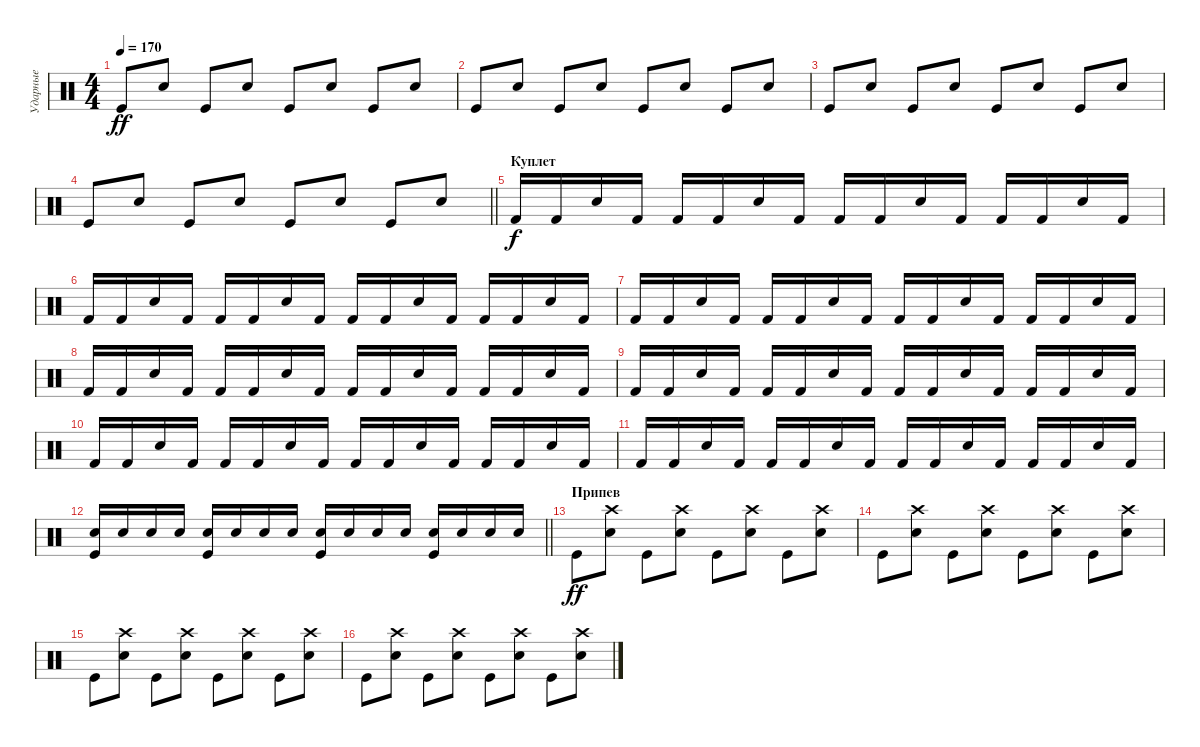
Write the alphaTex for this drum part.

\track ("Ударные" "Ударные") {instrument percussion}
\staff {score}
\articulation defaults
\ts (4 4)
\tempo 170
\clef neutral
\ks c "Kick (hit)".8{dy ff} "Electric Snare (hit)".8 "Kick (hit)".8 "Electric Snare (hit)".8 "Kick (hit)".8 "Electric Snare (hit)".8 "Kick (hit)".8 "Electric Snare (hit)".8
|
"Kick (hit)".8 "Electric Snare (hit)".8 "Kick (hit)".8 "Electric Snare (hit)".8 "Kick (hit)".8 "Electric Snare (hit)".8 "Kick (hit)".8 "Electric Snare (hit)".8 |
"Kick (hit)".8 "Electric Snare (hit)".8 "Kick (hit)".8 "Electric Snare (hit)".8 "Kick (hit)".8 "Electric Snare (hit)".8 "Kick (hit)".8 "Electric Snare (hit)".8 |
\barLineRight lightlight "Kick (hit)".8 "Electric Snare (hit)".8 "Kick (hit)".8 "Electric Snare (hit)".8 "Kick (hit)".8 "Electric Snare (hit)".8 "Kick (hit)".8 "Electric Snare (hit)".8
|
\section ("" "Куплет")
"Kick (hit) 2".16{dy f} "Kick (hit) 2".16 "Snare (hit) 2".16 "Kick (hit) 2".16 "Kick (hit) 2".16 "Kick (hit) 2".16 "Snare (hit) 2".16 "Kick (hit) 2".16 "Kick (hit) 2".16 "Kick (hit) 2".16 "Snare (hit) 2".16 "Kick (hit) 2".16 "Kick (hit) 2".16 "Kick (hit) 2".16 "Snare (hit) 2".16 "Kick (hit) 2".16 |
"Kick (hit) 2".16 "Kick (hit) 2".16 "Snare (hit) 2".16 "Kick (hit) 2".16 "Kick (hit) 2".16 "Kick (hit) 2".16 "Snare (hit) 2".16 "Kick (hit) 2".16 "Kick (hit) 2".16 "Kick (hit) 2".16 "Snare (hit) 2".16 "Kick (hit) 2".16 "Kick (hit) 2".16 "Kick (hit) 2".16 "Snare (hit) 2".16 "Kick (hit) 2".16 |
"Kick (hit) 2".16 "Kick (hit) 2".16 "Snare (hit) 2".16 "Kick (hit) 2".16 "Kick (hit) 2".16 "Kick (hit) 2".16 "Snare (hit) 2".16 "Kick (hit) 2".16 "Kick (hit) 2".16 "Kick (hit) 2".16 "Snare (hit) 2".16 "Kick (hit) 2".16 "Kick (hit) 2".16 "Kick (hit) 2".16 "Snare (hit) 2".16 "Kick (hit) 2".16 |
"Kick (hit) 2".16 "Kick (hit) 2".16 "Snare (hit) 2".16 "Kick (hit) 2".16 "Kick (hit) 2".16 "Kick (hit) 2".16 "Snare (hit) 2".16 "Kick (hit) 2".16 "Kick (hit) 2".16 "Kick (hit) 2".16 "Snare (hit) 2".16 "Kick (hit) 2".16 "Kick (hit) 2".16 "Kick (hit) 2".16 "Snare (hit) 2".16 "Kick (hit) 2".16 |
"Kick (hit) 2".16 "Kick (hit) 2".16 "Snare (hit) 2".16 "Kick (hit) 2".16 "Kick (hit) 2".16 "Kick (hit) 2".16 "Snare (hit) 2".16 "Kick (hit) 2".16 "Kick (hit) 2".16 "Kick (hit) 2".16 "Snare (hit) 2".16 "Kick (hit) 2".16 "Kick (hit) 2".16 "Kick (hit) 2".16 "Snare (hit) 2".16 "Kick (hit) 2".16 |
"Kick (hit) 2".16 "Kick (hit) 2".16 "Snare (hit) 2".16 "Kick (hit) 2".16 "Kick (hit) 2".16 "Kick (hit) 2".16 "Snare (hit) 2".16 "Kick (hit) 2".16 "Kick (hit) 2".16 "Kick (hit) 2".16 "Snare (hit) 2".16 "Kick (hit) 2".16 "Kick (hit) 2".16 "Kick (hit) 2".16 "Snare (hit) 2".16 "Kick (hit) 2".16 |
"Kick (hit) 2".16 "Kick (hit) 2".16 "Snare (hit) 2".16 "Kick (hit) 2".16 "Kick (hit) 2".16 "Kick (hit) 2".16 "Snare (hit) 2".16 "Kick (hit) 2".16 "Kick (hit) 2".16 "Kick (hit) 2".16 "Snare (hit) 2".16 "Kick (hit) 2".16 "Kick (hit) 2".16 "Kick (hit) 2".16 "Snare (hit) 2".16 "Kick (hit) 2".16 |
\barLineRight lightlight
("Snare (hit) 2" "Kick (hit)").16 "Snare (hit) 2".16 "Snare (hit) 2".16 "Snare (hit) 2".16 ("Snare (hit) 2" "Kick (hit)").16 "Snare (hit) 2".16 "Snare (hit) 2".16 "Snare (hit) 2".16 ("Snare (hit) 2" "Kick (hit)").16 "Snare (hit) 2".16 "Snare (hit) 2".16 "Snare (hit) 2".16 ("Snare (hit) 2" "Kick (hit)").16 "Snare (hit) 2".16 "Snare (hit) 2".16 "Snare (hit) 2".16 |
\section ("" "Припев")
"Kick (hit)".8{dy ff} ("Crash high (hit)" "Electric Snare (hit)").8 "Kick (hit)".8 ("Crash high (hit)" "Electric Snare (hit)").8 "Kick (hit)".8 ("Crash high (hit)" "Electric Snare (hit)").8 "Kick (hit)".8 ("Crash high (hit)" "Electric Snare (hit)").8 |
"Kick (hit)".8 ("Crash high (hit)" "Electric Snare (hit)").8 "Kick (hit)".8 ("Crash high (hit)" "Electric Snare (hit)").8 "Kick (hit)".8 ("Crash high (hit)" "Electric Snare (hit)").8 "Kick (hit)".8 ("Crash high (hit)" "Electric Snare (hit)").8 |
"Kick (hit)".8 ("Crash high (hit)" "Electric Snare (hit)").8 "Kick (hit)".8 ("Crash high (hit)" "Electric Snare (hit)").8 "Kick (hit)".8 ("Crash high (hit)" "Electric Snare (hit)").8 "Kick (hit)".8 ("Crash high (hit)" "Electric Snare (hit)").8 |
"Kick (hit)".8 ("Crash high (hit)" "Electric Snare (hit)").8 "Kick (hit)".8 ("Crash high (hit)" "Electric Snare (hit)").8 "Kick (hit)".8 ("Crash high (hit)" "Electric Snare (hit)").8 "Kick (hit)".8 ("Crash high (hit)" "Electric Snare (hit)").8
